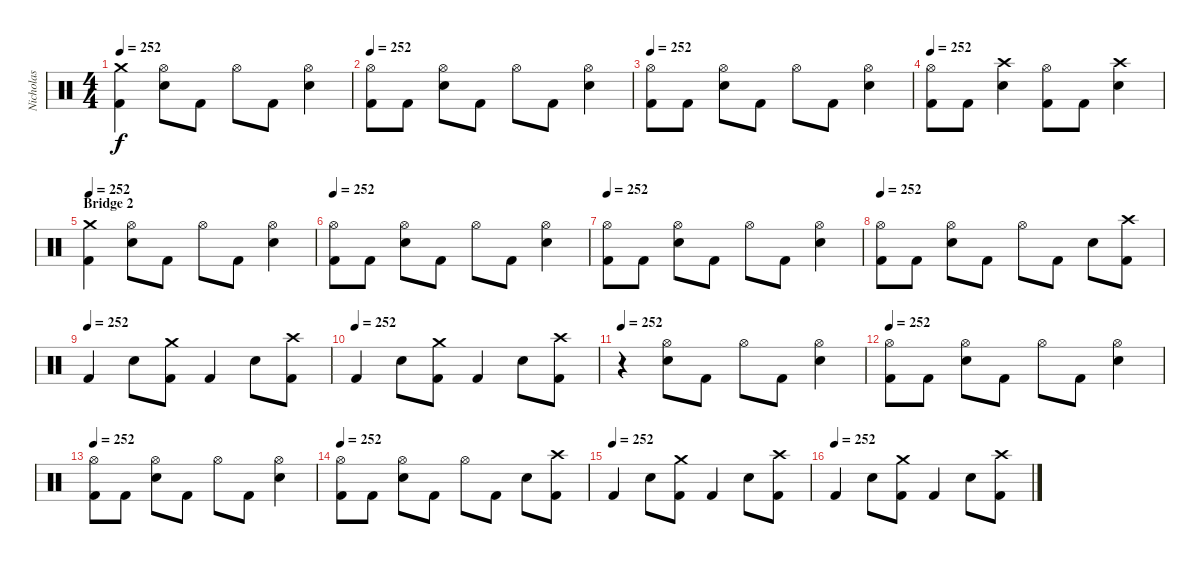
\track ("Nicholas" "Nicholas") {instrument percussion}
\staff {score}
\articulation defaults
\ts (4 4)
\tempo 252
\clef neutral
\ks c
("Crash medium (hit)" "Kick (hit) 2").4{dy f} ("Hi-Hat (open)" "Snare (hit) 2").8 "Kick (hit) 2".8 "Hi-Hat (open)".8 "Kick (hit) 2".8 ("Hi-Hat (open)" "Snare (hit) 2").4 |
\tempo 252
("Hi-Hat (open)" "Kick (hit) 2").8 "Kick (hit) 2".8 ("Hi-Hat (open)" "Snare (hit) 2").8 "Kick (hit) 2".8 "Hi-Hat (open)".8 "Kick (hit) 2".8 ("Hi-Hat (open)" "Snare (hit) 2").4 |
\tempo 252
("Hi-Hat (open)" "Kick (hit) 2").8 "Kick (hit) 2".8 ("Hi-Hat (open)" "Snare (hit) 2").8 "Kick (hit) 2".8 "Hi-Hat (open)".8 "Kick (hit) 2".8 ("Hi-Hat (open)" "Snare (hit) 2").4 |
\tempo 252
("Hi-Hat (open)" "Kick (hit) 2").8 "Kick (hit) 2".8 ("Crash high (hit)" "Snare (hit) 2").4 ("Hi-Hat (open)" "Kick (hit) 2").8 "Kick (hit) 2".8 ("Crash high (hit)" "Snare (hit) 2").4 |
\section ("" "Bridge 2")
\tempo 252
("Crash medium (hit)" "Kick (hit) 2").4 ("Hi-Hat (open)" "Snare (hit) 2").8 "Kick (hit) 2".8 "Hi-Hat (open)".8 "Kick (hit) 2".8 ("Hi-Hat (open)" "Snare (hit) 2").4 |
\tempo 252
("Hi-Hat (open)" "Kick (hit) 2").8 "Kick (hit) 2".8 ("Hi-Hat (open)" "Snare (hit) 2").8 "Kick (hit) 2".8 "Hi-Hat (open)".8 "Kick (hit) 2".8 ("Hi-Hat (open)" "Snare (hit) 2").4 |
\tempo 252
("Hi-Hat (open)" "Kick (hit) 2").8 "Kick (hit) 2".8 ("Hi-Hat (open)" "Snare (hit) 2").8 "Kick (hit) 2".8 "Hi-Hat (open)".8 "Kick (hit) 2".8 ("Hi-Hat (open)" "Snare (hit) 2").4 |
\tempo 252
("Hi-Hat (open)" "Kick (hit) 2").8 "Kick (hit) 2".8 ("Hi-Hat (open)" "Snare (hit) 2").8 "Kick (hit) 2".8 "Hi-Hat (open)".8 "Kick (hit) 2".8 "Snare (hit) 2".8 ("Crash high (hit)" "Kick (hit) 2").8 |
\tempo (252)
"Kick (hit) 2".4 "Snare (hit) 2".8 ("Crash medium (hit)" "Kick (hit) 2").8 "Kick (hit) 2".4 "Snare (hit) 2".8 ("Crash high (hit)" "Kick (hit) 2").8 |
\tempo (252)
"Kick (hit) 2".4 "Snare (hit) 2".8 ("Crash medium (hit)" "Kick (hit) 2").8 "Kick (hit) 2".4 "Snare (hit) 2".8 ("Crash high (hit)" "Kick (hit) 2").8 |
\tempo 252
r.4 ("Hi-Hat (open)" "Snare (hit) 2").8 "Kick (hit) 2".8 "Hi-Hat (open)".8 "Kick (hit) 2".8 ("Hi-Hat (open)" "Snare (hit) 2").4 |
\tempo 252
("Hi-Hat (open)" "Kick (hit) 2").8 "Kick (hit) 2".8 ("Hi-Hat (open)" "Snare (hit) 2").8 "Kick (hit) 2".8 "Hi-Hat (open)".8 "Kick (hit) 2".8 ("Hi-Hat (open)" "Snare (hit) 2").4 |
\tempo 252
("Hi-Hat (open)" "Kick (hit) 2").8 "Kick (hit) 2".8 ("Hi-Hat (open)" "Snare (hit) 2").8 "Kick (hit) 2".8 "Hi-Hat (open)".8 "Kick (hit) 2".8 ("Hi-Hat (open)" "Snare (hit) 2").4 |
\tempo 252
("Hi-Hat (open)" "Kick (hit) 2").8 "Kick (hit) 2".8 ("Hi-Hat (open)" "Snare (hit) 2").8 "Kick (hit) 2".8 "Hi-Hat (open)".8 "Kick (hit) 2".8 "Snare (hit) 2".8 ("Crash high (hit)" "Kick (hit) 2").8 |
\tempo (252)
"Kick (hit) 2".4 "Snare (hit) 2".8 ("Crash medium (hit)" "Kick (hit) 2").8 "Kick (hit) 2".4 "Snare (hit) 2".8 ("Crash high (hit)" "Kick (hit) 2").8 |
\tempo (252)
"Kick (hit) 2".4 "Snare (hit) 2".8 ("Crash medium (hit)" "Kick (hit) 2").8 "Kick (hit) 2".4 "Snare (hit) 2".8 ("Crash high (hit)" "Kick (hit) 2").8
